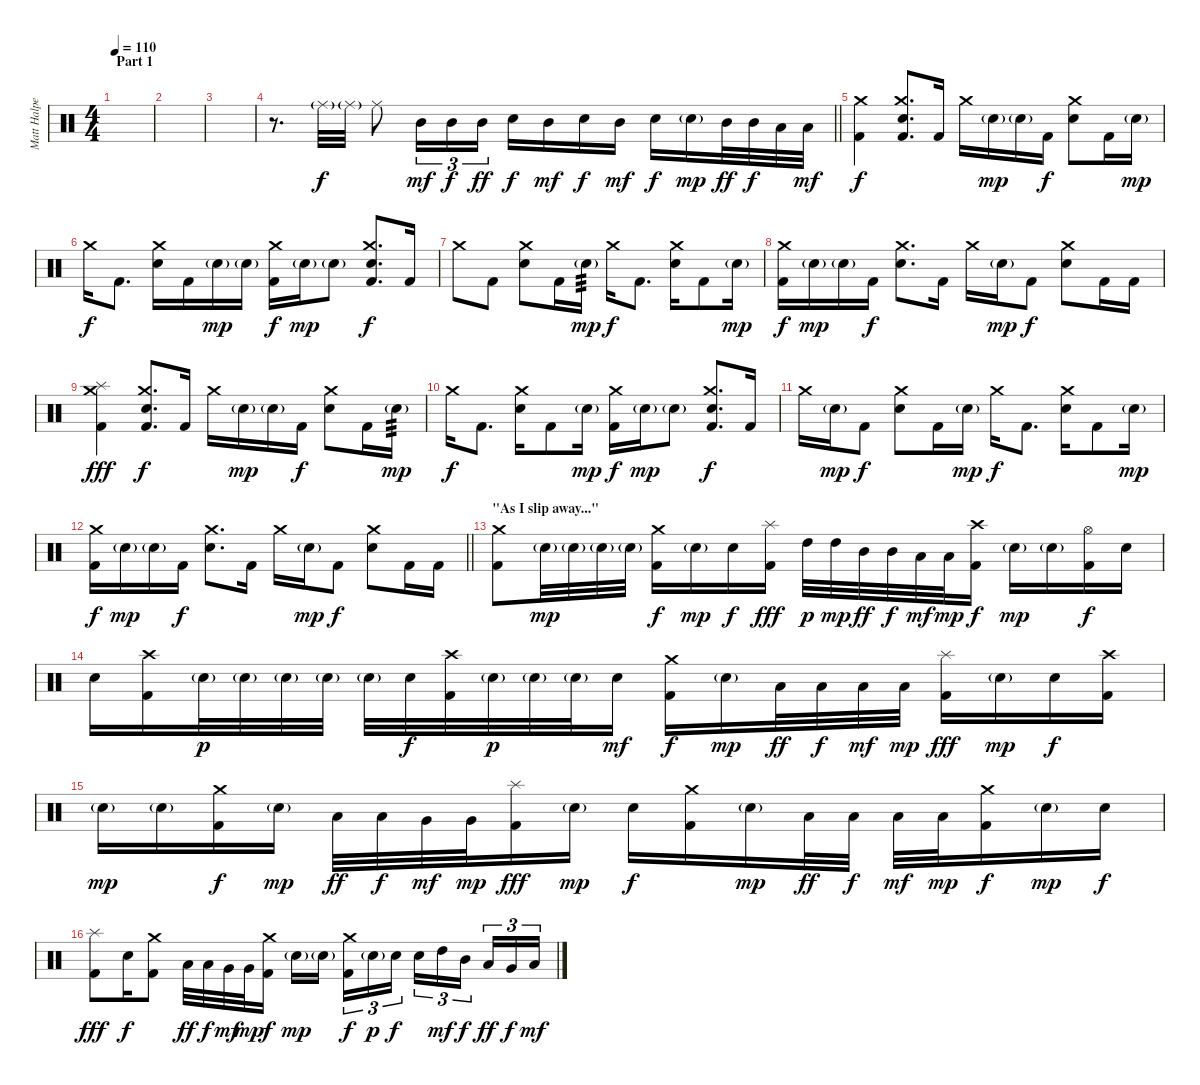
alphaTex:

\track ("Matt Halpern - Drums" "Matt Halpe") {instrument percussion}
\staff {score}
\articulation defaults
\ts (4 4)
\section ("" "Part 1")
\tempo 110
\clef neutral
\ks c
|
|
|
\barLineRight lightlight
r.8{d} "Ride (middle)"{g}.32 "Ride (middle)"{g}.32 "Ride (middle)".8{dy f} "Mid Tom (hit)".16{tu (3 2) dy mf} "Mid Tom (hit)".16{tu (3 2) dy f} "Mid Tom (hit)".16{tu (3 2) dy ff} "Electric Snare (hit)".16{dy f} "Mid Tom (hit)".16{dy mf} "Electric Snare (hit)".16{dy f} "Mid Tom (hit)".16{dy mf} "Electric Snare (hit)".16{dy f} "Electric Snare (hit)"{g}.16{dy mp} "Mid Tom (hit)".32{dy ff} "Mid Tom (hit)".32{dy f} "Low Floor Tom (hit)".32 "Low Floor Tom (hit)".32{dy mf} |
\section ("" "")
("Crash medium (hit)" "Kick (hit) 2").4{dy f} ("Crash medium (hit)" "Electric Snare (hit)" "Kick (hit) 2").8{d} "Kick (hit) 2".16 "Crash medium (hit)".16 "Electric Snare (hit)"{g}.16{dy mp} "Electric Snare (hit)"{g}.16 "Kick (hit) 2".16{dy f} ("Crash medium (hit)" "Electric Snare (hit)").8 "Kick (hit) 2".16 "Electric Snare (hit)"{g}.16{dy mp} |
"Crash medium (hit)".16{dy f} "Kick (hit) 2".8{d} ("Crash medium (hit)" "Electric Snare (hit)").16 "Kick (hit) 2".16 "Electric Snare (hit)"{g}.16{dy mp} "Electric Snare (hit)"{g}.16 ("Crash medium (hit)" "Kick (hit) 2").16{dy f} "Electric Snare (hit)"{g}.16{dy mp} "Electric Snare (hit)"{g}.8 ("Crash medium (hit)" "Electric Snare (hit)" "Kick (hit) 2").8{d dy f} "Kick (hit) 2".16 |
"Crash medium (hit)".8 "Kick (hit) 2".8 ("Crash medium (hit)" "Electric Snare (hit)").8 "Kick (hit) 2".16 "Electric Snare (hit)"{g}.16{tp 3 dy mp} "Crash medium (hit)".16{dy f} "Kick (hit) 2".8{d} ("Crash medium (hit)" "Electric Snare (hit)").16 "Kick (hit) 2".8 "Electric Snare (hit)"{g}.16{dy mp} |
("Crash medium (hit)" "Kick (hit) 2").16{dy f} "Electric Snare (hit)"{g}.16{dy mp} "Electric Snare (hit)"{g}.16 "Kick (hit) 2".16{dy f} ("Crash medium (hit)" "Electric Snare (hit)").8{d} "Kick (hit) 2".16 "Crash medium (hit)".16 "Electric Snare (hit)"{g}.16{dy mp} "Kick (hit) 2".8{dy f} ("Crash medium (hit)" "Electric Snare (hit)").8 "Kick (hit) 2".16 "Kick (hit) 2".16 |
("Crash medium (hit)" "Splash (hit)" "Kick (hit) 2").4{dy fff} ("Crash medium (hit)" "Electric Snare (hit)" "Kick (hit) 2").8{d dy f} "Kick (hit) 2".16 "Crash medium (hit)".16 "Electric Snare (hit)"{g}.16{dy mp} "Electric Snare (hit)"{g}.16 "Kick (hit) 2".16{dy f} ("Crash medium (hit)" "Electric Snare (hit)").8 "Kick (hit) 2".16 "Electric Snare (hit)"{g}.16{tp 3 dy mp} |
"Crash medium (hit)".16{dy f} "Kick (hit) 2".8{d} ("Crash medium (hit)" "Electric Snare (hit)").16 "Kick (hit) 2".8 "Electric Snare (hit)"{g}.16{dy mp} ("Crash medium (hit)" "Kick (hit) 2").16{dy f} "Electric Snare (hit)"{g}.16{dy mp} "Electric Snare (hit)"{g}.8 ("Crash medium (hit)" "Electric Snare (hit)" "Kick (hit) 2").8{d dy f} "Kick (hit) 2".16 |
"Crash medium (hit)".16 "Electric Snare (hit)"{g}.16{dy mp} "Kick (hit) 2".8{dy f} ("Crash medium (hit)" "Electric Snare (hit)").8 "Kick (hit) 2".16 "Electric Snare (hit)"{g}.16{dy mp} "Crash medium (hit)".16{dy f} "Kick (hit) 2".8{d} ("Crash medium (hit)" "Electric Snare (hit)").16 "Kick (hit) 2".8 "Electric Snare (hit)"{g}.16{dy mp} |
\barLineRight lightlight
("Crash medium (hit)" "Kick (hit) 2").16{dy f} "Electric Snare (hit)"{g}.16{dy mp} "Electric Snare (hit)"{g}.16 "Kick (hit) 2".16{dy f} ("Crash medium (hit)" "Electric Snare (hit)").8{d} "Kick (hit) 2".16 "Crash medium (hit)".16 "Electric Snare (hit)"{g}.16{dy mp} "Kick (hit) 2".8{dy f} ("Crash medium (hit)" "Electric Snare (hit)").8 "Kick (hit) 2".16 "Kick (hit) 2".16 |
\section ("" "\"As I slip away...\"")
("Crash medium (hit)" "Kick (hit) 2").8 "Electric Snare (hit)"{g}.32{dy mp} "Electric Snare (hit)"{g}.32 "Electric Snare (hit)"{g}.32 "Electric Snare (hit)"{g}.32 ("Crash medium (hit)" "Kick (hit) 2").16{dy f} "Electric Snare (hit)"{g}.16{dy mp} "Electric Snare (hit)".16{dy f} ("Splash (hit)" "Kick (hit) 2").16{dy fff} "High Tom (hit)".32{dy p} "High Tom (hit)".32{dy mp} "Mid Tom (hit)".32{dy ff} "Mid Tom (hit)".32{dy f} "Low Tom (hit)".32{dy mf} "Low Tom (hit)".32{dy mp} ("Crash high (hit)" "Kick (hit) 2").16{dy f} "Electric Snare (hit)"{g}.16{dy mp} "Electric Snare (hit)"{g}.16 ("Hi-Hat (open)" "Kick (hit) 2").16{dy f} "Electric Snare (hit)".16 |
"Electric Snare (hit)".16 ("Crash high (hit)" "Kick (hit) 2").16 "Electric Snare (hit)"{g}.32{dy p} "Electric Snare (hit)"{g}.32 "Electric Snare (hit)"{g}.32 "Electric Snare (hit)"{g}.32 "Electric Snare (hit)"{g}.32 "Electric Snare (hit)".32{dy f} ("Crash high (hit)" "Kick (hit) 2").32 "Electric Snare (hit)"{g}.32{dy p} "Electric Snare (hit)"{g}.32 "Electric Snare (hit)"{g}.32 "Electric Snare (hit)".16{dy mf} ("Crash medium (hit)" "Kick (hit) 2").16{dy f} "Electric Snare (hit)"{g}.16{dy mp} "Low Tom (hit)".32{dy ff} "Low Tom (hit)".32{dy f} "Low Floor Tom (hit)".32{dy mf} "Low Floor Tom (hit)".32{dy mp} ("Splash (hit)" "Kick (hit) 2").16{dy fff} "Electric Snare (hit)"{g}.16{dy mp} "Electric Snare (hit)".16{dy f} ("Crash high (hit)" "Kick (hit) 2").16 |
"Electric Snare (hit)"{g}.16{dy mp} "Electric Snare (hit)"{g}.16 ("Crash medium (hit)" "Kick (hit) 2").16{dy f} "Electric Snare (hit)"{g}.16{dy mp} "Low Tom (hit)".32{dy ff} "Low Tom (hit)".32{dy f} "Very Low Tom (hit)".32{dy mf} "Very Low Tom (hit)".32{dy mp} ("Splash (hit)" "Kick (hit) 2").16{dy fff} "Electric Snare (hit)"{g}.16{dy mp} "Electric Snare (hit)".16{dy f} ("Crash medium (hit)" "Kick (hit) 2").16 "Electric Snare (hit)"{g}.16{dy mp} "Low Tom (hit)".32{dy ff} "Low Tom (hit)".32{dy f} "Low Floor Tom (hit)".32{dy mf} "Low Floor Tom (hit)".32{dy mp} ("Crash medium (hit)" "Kick (hit) 2").16{dy f} "Electric Snare (hit)"{g}.16{dy mp} "Electric Snare (hit)".16{dy f} |
("Splash (hit)" "Kick (hit) 2").8{dy fff} "Electric Snare (hit)".16{dy f} ("Crash medium (hit)" "Kick (hit) 2").8 "Low Tom (hit)".32{dy ff} "Low Tom (hit)".32{dy f} "Very Low Tom (hit)".32{dy mf} "Very Low Tom (hit)".32{dy mp} ("Crash medium (hit)" "Kick (hit) 2").16{dy f} "Electric Snare (hit)"{g}.16{dy mp} "Electric Snare (hit)"{g}.16{beam splitsecondary} ("Crash medium (hit)" "Kick (hit) 2").16{tu (3 2) dy f} "Electric Snare (hit)"{g}.16{tu (3 2) dy p} "Electric Snare (hit)".16{tu (3 2) dy f} "Electric Snare (hit)".16{tu (3 2)} "High Tom (hit)".16{tu (3 2) dy mf} "Mid Tom (hit)".16{tu (3 2) dy f beam splitsecondary} "Low Tom (hit)".16{tu (3 2) dy ff} "Very Low Tom (hit)".16{tu (3 2) dy f} "Low Floor Tom (hit)".16{tu (3 2) dy mf}
